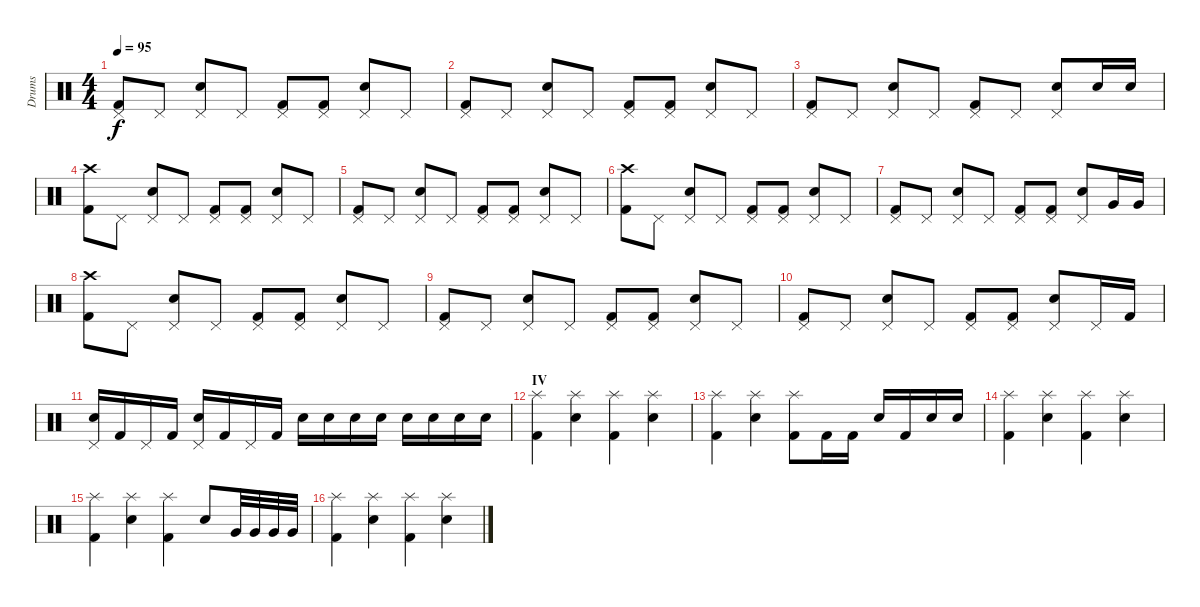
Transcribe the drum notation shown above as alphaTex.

\track ("Drums" "Drums") {instrument percussion}
\staff {score}
\articulation defaults
\ts (4 4)
\tempo 95
\clef neutral
\ks c
("Pedal Hi-Hat (hit)" "Kick (hit) 2").8{dy f} "Pedal Hi-Hat (hit)".8 ("Pedal Hi-Hat (hit)" "Electric Snare (hit)").8 "Pedal Hi-Hat (hit)".8 ("Pedal Hi-Hat (hit)" "Kick (hit) 2").8 ("Pedal Hi-Hat (hit)" "Kick (hit) 2").8 ("Pedal Hi-Hat (hit)" "Electric Snare (hit)").8 "Pedal Hi-Hat (hit)".8 |
("Pedal Hi-Hat (hit)" "Kick (hit) 2").8 "Pedal Hi-Hat (hit)".8 ("Pedal Hi-Hat (hit)" "Electric Snare (hit)").8 "Pedal Hi-Hat (hit)".8 ("Pedal Hi-Hat (hit)" "Kick (hit) 2").8 ("Pedal Hi-Hat (hit)" "Kick (hit) 2").8 ("Pedal Hi-Hat (hit)" "Electric Snare (hit)").8 "Pedal Hi-Hat (hit)".8 |
("Pedal Hi-Hat (hit)" "Kick (hit) 2").8 "Pedal Hi-Hat (hit)".8 ("Pedal Hi-Hat (hit)" "Electric Snare (hit)").8 "Pedal Hi-Hat (hit)".8 ("Pedal Hi-Hat (hit)" "Kick (hit) 2").8 "Pedal Hi-Hat (hit)".8 ("Pedal Hi-Hat (hit)" "Electric Snare (hit)").8 "Electric Snare (hit)".16 "Electric Snare (hit)".16 |
("Crash high (hit)" "Kick (hit) 2").8 "Pedal Hi-Hat (hit)".8 ("Pedal Hi-Hat (hit)" "Electric Snare (hit)").8 "Pedal Hi-Hat (hit)".8 ("Pedal Hi-Hat (hit)" "Kick (hit) 2").8 ("Pedal Hi-Hat (hit)" "Kick (hit) 2").8 ("Pedal Hi-Hat (hit)" "Electric Snare (hit)").8 "Pedal Hi-Hat (hit)".8 |
("Pedal Hi-Hat (hit)" "Kick (hit) 2").8 "Pedal Hi-Hat (hit)".8 ("Pedal Hi-Hat (hit)" "Electric Snare (hit)").8 "Pedal Hi-Hat (hit)".8 ("Pedal Hi-Hat (hit)" "Kick (hit) 2").8 ("Pedal Hi-Hat (hit)" "Kick (hit) 2").8 ("Pedal Hi-Hat (hit)" "Electric Snare (hit)").8 "Pedal Hi-Hat (hit)".8 |
("Crash high (hit)" "Kick (hit) 2").8 "Pedal Hi-Hat (hit)".8 ("Pedal Hi-Hat (hit)" "Electric Snare (hit)").8 "Pedal Hi-Hat (hit)".8 ("Pedal Hi-Hat (hit)" "Kick (hit) 2").8 ("Pedal Hi-Hat (hit)" "Kick (hit) 2").8 ("Pedal Hi-Hat (hit)" "Electric Snare (hit)").8 "Pedal Hi-Hat (hit)".8 |
("Pedal Hi-Hat (hit)" "Kick (hit) 2").8 "Pedal Hi-Hat (hit)".8 ("Pedal Hi-Hat (hit)" "Electric Snare (hit)").8 "Pedal Hi-Hat (hit)".8 ("Pedal Hi-Hat (hit)" "Kick (hit) 2").8 ("Pedal Hi-Hat (hit)" "Kick (hit) 2").8 ("Pedal Hi-Hat (hit)" "Electric Snare (hit)").8 "Very Low Tom (hit)".16 "Very Low Tom (hit)".16 |
("Crash high (hit)" "Kick (hit) 2").8 "Pedal Hi-Hat (hit)".8 ("Pedal Hi-Hat (hit)" "Electric Snare (hit)").8 "Pedal Hi-Hat (hit)".8 ("Pedal Hi-Hat (hit)" "Kick (hit) 2").8 ("Pedal Hi-Hat (hit)" "Kick (hit) 2").8 ("Pedal Hi-Hat (hit)" "Electric Snare (hit)").8 "Pedal Hi-Hat (hit)".8 |
("Pedal Hi-Hat (hit)" "Kick (hit) 2").8 "Pedal Hi-Hat (hit)".8 ("Pedal Hi-Hat (hit)" "Electric Snare (hit)").8 "Pedal Hi-Hat (hit)".8 ("Pedal Hi-Hat (hit)" "Kick (hit) 2").8 ("Pedal Hi-Hat (hit)" "Kick (hit) 2").8 ("Pedal Hi-Hat (hit)" "Electric Snare (hit)").8 "Pedal Hi-Hat (hit)".8 |
("Pedal Hi-Hat (hit)" "Kick (hit) 2").8 "Pedal Hi-Hat (hit)".8 ("Pedal Hi-Hat (hit)" "Electric Snare (hit)").8 "Pedal Hi-Hat (hit)".8 ("Pedal Hi-Hat (hit)" "Kick (hit) 2").8 ("Pedal Hi-Hat (hit)" "Kick (hit) 2").8 ("Pedal Hi-Hat (hit)" "Electric Snare (hit)").8 "Pedal Hi-Hat (hit)".16 "Kick (hit) 2".16 |
("Pedal Hi-Hat (hit)" "Electric Snare (hit)").16 "Kick (hit) 2".16 "Pedal Hi-Hat (hit)".16 "Kick (hit) 2".16 ("Pedal Hi-Hat (hit)" "Electric Snare (hit)").16 "Kick (hit) 2".16 "Pedal Hi-Hat (hit)".16 "Kick (hit) 2".16 "Electric Snare (hit)".16 "Electric Snare (hit)".16 "Electric Snare (hit)".16 "Electric Snare (hit)".16 "Electric Snare (hit)".16 "Electric Snare (hit)".16 "Electric Snare (hit)".16 "Electric Snare (hit)".16 |
\section ("" "IV")
("Splash (hit)" "Kick (hit) 2").4 ("Splash (hit)" "Electric Snare (hit)").4 ("Splash (hit)" "Kick (hit) 2").4 ("Splash (hit)" "Electric Snare (hit)").4 |
("Splash (hit)" "Kick (hit) 2").4 ("Splash (hit)" "Electric Snare (hit)").4 ("Splash (hit)" "Kick (hit) 2").8 "Kick (hit) 2".16 "Kick (hit) 2".16 "Electric Snare (hit)".16 "Kick (hit) 2".16 "Electric Snare (hit)".16 "Electric Snare (hit)".16 |
("Splash (hit)" "Kick (hit) 2").4 ("Splash (hit)" "Electric Snare (hit)").4 ("Splash (hit)" "Kick (hit) 2").4 ("Splash (hit)" "Electric Snare (hit)").4 |
("Splash (hit)" "Kick (hit) 2").4 ("Splash (hit)" "Electric Snare (hit)").4 ("Splash (hit)" "Kick (hit) 2").4 "Electric Snare (hit)".8 "Very Low Tom (hit)".32 "Very Low Tom (hit)".32 "Very Low Tom (hit)".32 "Very Low Tom (hit)".32 |
("Splash (hit)" "Kick (hit) 2").4 ("Splash (hit)" "Electric Snare (hit)").4 ("Splash (hit)" "Kick (hit) 2").4 ("Splash (hit)" "Electric Snare (hit)").4
